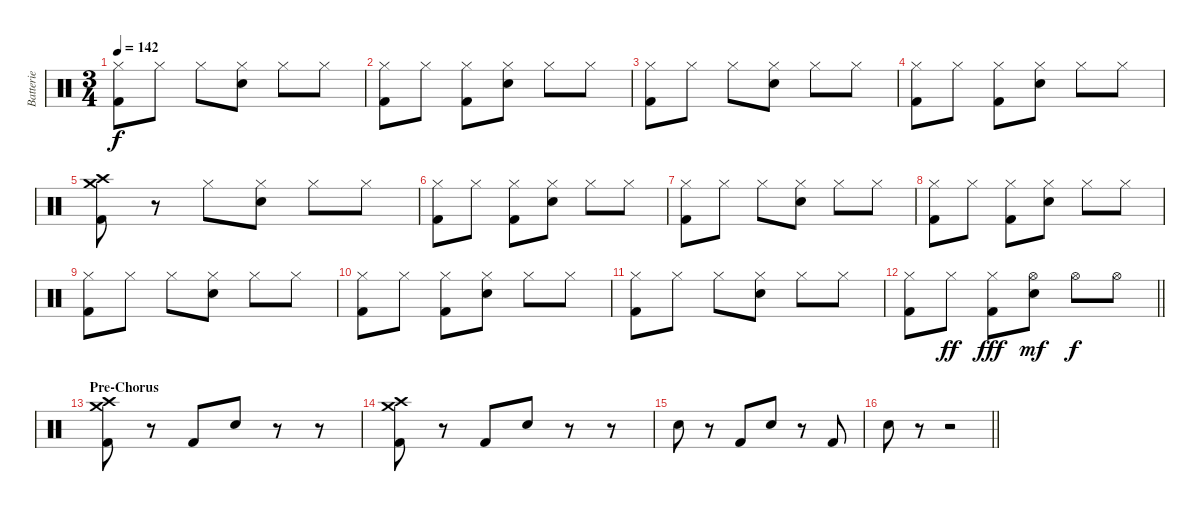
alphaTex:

\track ("Batterie" "Batterie") {instrument percussion}
\staff {score}
\articulation defaults
\ts (3 4)
\tempo 142
\clef neutral
\ks c
("Hi-Hat (closed)" "Kick (hit) 2").8{dy f} "Hi-Hat (closed)".8 "Hi-Hat (closed)".8 ("Hi-Hat (closed)" "Electric Snare (hit)").8 "Hi-Hat (closed)".8 "Hi-Hat (closed)".8 |
("Hi-Hat (closed)" "Kick (hit) 2").8 "Hi-Hat (closed)".8 ("Hi-Hat (closed)" "Kick (hit) 2").8 ("Hi-Hat (closed)" "Electric Snare (hit)").8 "Hi-Hat (closed)".8 "Hi-Hat (closed)".8 |
("Hi-Hat (closed)" "Kick (hit) 2").8 "Hi-Hat (closed)".8 "Hi-Hat (closed)".8 ("Hi-Hat (closed)" "Electric Snare (hit)").8 "Hi-Hat (closed)".8 "Hi-Hat (closed)".8 |
("Hi-Hat (closed)" "Kick (hit) 2").8 "Hi-Hat (closed)".8 ("Hi-Hat (closed)" "Kick (hit) 2").8 ("Hi-Hat (closed)" "Electric Snare (hit)").8 "Hi-Hat (closed)".8 "Hi-Hat (closed)".8 |
("Crash medium (hit)" "Crash high (hit)" "Kick (hit) 2").8 r.8 "Hi-Hat (closed)".8 ("Hi-Hat (closed)" "Electric Snare (hit)").8 "Hi-Hat (closed)".8 "Hi-Hat (closed)".8 |
("Hi-Hat (closed)" "Kick (hit) 2").8 "Hi-Hat (closed)".8 ("Hi-Hat (closed)" "Kick (hit) 2").8 ("Hi-Hat (closed)" "Electric Snare (hit)").8 "Hi-Hat (closed)".8 "Hi-Hat (closed)".8 |
("Hi-Hat (closed)" "Kick (hit) 2").8 "Hi-Hat (closed)".8 "Hi-Hat (closed)".8 ("Hi-Hat (closed)" "Electric Snare (hit)").8 "Hi-Hat (closed)".8 "Hi-Hat (closed)".8 |
("Hi-Hat (closed)" "Kick (hit) 2").8 "Hi-Hat (closed)".8 ("Hi-Hat (closed)" "Kick (hit) 2").8 ("Hi-Hat (closed)" "Electric Snare (hit)").8 "Hi-Hat (closed)".8 "Hi-Hat (closed)".8 |
("Hi-Hat (closed)" "Kick (hit) 2").8 "Hi-Hat (closed)".8 "Hi-Hat (closed)".8 ("Hi-Hat (closed)" "Electric Snare (hit)").8 "Hi-Hat (closed)".8 "Hi-Hat (closed)".8 |
("Hi-Hat (closed)" "Kick (hit) 2").8 "Hi-Hat (closed)".8 ("Hi-Hat (closed)" "Kick (hit) 2").8 ("Hi-Hat (closed)" "Electric Snare (hit)").8 "Hi-Hat (closed)".8 "Hi-Hat (closed)".8 |
("Hi-Hat (closed)" "Kick (hit) 2").8 "Hi-Hat (closed)".8 "Hi-Hat (closed)".8 ("Hi-Hat (closed)" "Electric Snare (hit)").8 "Hi-Hat (closed)".8 "Hi-Hat (closed)".8 |
\barLineRight lightlight
("Hi-Hat (closed)" "Kick (hit) 2").8 "Hi-Hat (closed)".8{dy ff} ("Hi-Hat (closed)" "Kick (hit) 2").8{dy fff} ("Hi-Hat (open)" "Electric Snare (hit)").8{dy mf} "Hi-Hat (open)".8{dy f} "Hi-Hat (open)".8 |
\section ("" "Pre-Chorus")
("Crash medium (hit)" "Crash high (hit)" "Kick (hit) 2").8 r.8 "Kick (hit) 2".8 "Electric Snare (hit)".8 r.8 r.8 |
("Crash medium (hit)" "Crash high (hit)" "Kick (hit) 2").8 r.8 "Kick (hit) 2".8 "Electric Snare (hit)".8 r.8 r.8 |
"Electric Snare (hit)".8 r.8 "Kick (hit) 2".8 "Electric Snare (hit)".8 r.8 "Kick (hit) 2".8 |
\barLineRight lightlight "Electric Snare (hit)".8
r.8 r.2
